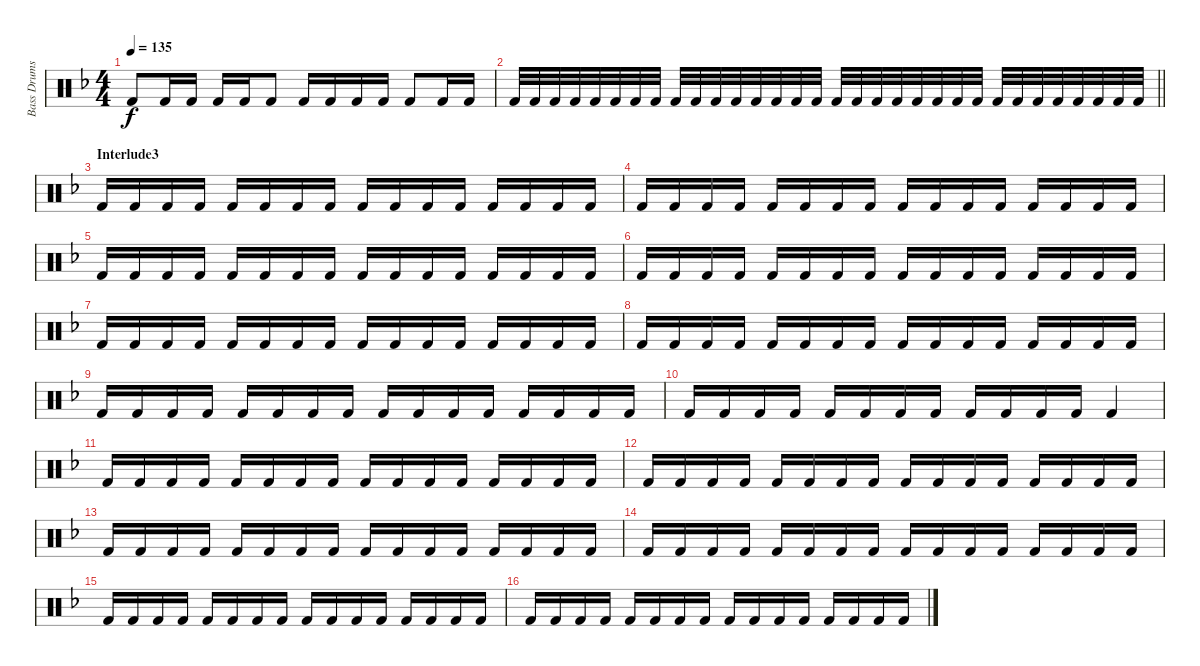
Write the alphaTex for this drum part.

\track ("Bass Drums" "Bass Drums") {instrument percussion}
\staff {score}
\articulation defaults
\ts (4 4)
\tempo 135
\clef neutral
\ks dminor "Kick (hit) 2".8{dy f} "Kick (hit) 2".16 "Kick (hit) 2".16 "Kick (hit) 2".16 "Kick (hit) 2".16 "Kick (hit) 2".8 "Kick (hit) 2".16 "Kick (hit) 2".16 "Kick (hit) 2".16 "Kick (hit) 2".16 "Kick (hit) 2".8 "Kick (hit) 2".16 "Kick (hit) 2".16
|
\barLineRight lightlight "Kick (hit) 2".32 "Kick (hit) 2".32 "Kick (hit) 2".32 "Kick (hit) 2".32 "Kick (hit) 2".32 "Kick (hit) 2".32 "Kick (hit) 2".32 "Kick (hit) 2".32 "Kick (hit) 2".32 "Kick (hit) 2".32 "Kick (hit) 2".32 "Kick (hit) 2".32 "Kick (hit) 2".32 "Kick (hit) 2".32 "Kick (hit) 2".32 "Kick (hit) 2".32 "Kick (hit) 2".32 "Kick (hit) 2".32 "Kick (hit) 2".32 "Kick (hit) 2".32 "Kick (hit) 2".32 "Kick (hit) 2".32 "Kick (hit) 2".32 "Kick (hit) 2".32 "Kick (hit) 2".32 "Kick (hit) 2".32 "Kick (hit) 2".32 "Kick (hit) 2".32 "Kick (hit) 2".32 "Kick (hit) 2".32 "Kick (hit) 2".32 "Kick (hit) 2".32
|
\section ("" "Interlude3")
"Kick (hit) 2".16 "Kick (hit) 2".16 "Kick (hit) 2".16 "Kick (hit) 2".16 "Kick (hit) 2".16 "Kick (hit) 2".16 "Kick (hit) 2".16 "Kick (hit) 2".16 "Kick (hit) 2".16 "Kick (hit) 2".16 "Kick (hit) 2".16 "Kick (hit) 2".16 "Kick (hit) 2".16 "Kick (hit) 2".16 "Kick (hit) 2".16 "Kick (hit) 2".16 |
"Kick (hit) 2".16 "Kick (hit) 2".16 "Kick (hit) 2".16 "Kick (hit) 2".16 "Kick (hit) 2".16 "Kick (hit) 2".16 "Kick (hit) 2".16 "Kick (hit) 2".16 "Kick (hit) 2".16 "Kick (hit) 2".16 "Kick (hit) 2".16 "Kick (hit) 2".16 "Kick (hit) 2".16 "Kick (hit) 2".16 "Kick (hit) 2".16 "Kick (hit) 2".16 |
"Kick (hit) 2".16 "Kick (hit) 2".16 "Kick (hit) 2".16 "Kick (hit) 2".16 "Kick (hit) 2".16 "Kick (hit) 2".16 "Kick (hit) 2".16 "Kick (hit) 2".16 "Kick (hit) 2".16 "Kick (hit) 2".16 "Kick (hit) 2".16 "Kick (hit) 2".16 "Kick (hit) 2".16 "Kick (hit) 2".16 "Kick (hit) 2".16 "Kick (hit) 2".16 |
"Kick (hit) 2".16 "Kick (hit) 2".16 "Kick (hit) 2".16 "Kick (hit) 2".16 "Kick (hit) 2".16 "Kick (hit) 2".16 "Kick (hit) 2".16 "Kick (hit) 2".16 "Kick (hit) 2".16 "Kick (hit) 2".16 "Kick (hit) 2".16 "Kick (hit) 2".16 "Kick (hit) 2".16 "Kick (hit) 2".16 "Kick (hit) 2".16 "Kick (hit) 2".16 |
"Kick (hit) 2".16 "Kick (hit) 2".16 "Kick (hit) 2".16 "Kick (hit) 2".16 "Kick (hit) 2".16 "Kick (hit) 2".16 "Kick (hit) 2".16 "Kick (hit) 2".16 "Kick (hit) 2".16 "Kick (hit) 2".16 "Kick (hit) 2".16 "Kick (hit) 2".16 "Kick (hit) 2".16 "Kick (hit) 2".16 "Kick (hit) 2".16 "Kick (hit) 2".16 |
"Kick (hit) 2".16 "Kick (hit) 2".16 "Kick (hit) 2".16 "Kick (hit) 2".16 "Kick (hit) 2".16 "Kick (hit) 2".16 "Kick (hit) 2".16 "Kick (hit) 2".16 "Kick (hit) 2".16 "Kick (hit) 2".16 "Kick (hit) 2".16 "Kick (hit) 2".16 "Kick (hit) 2".16 "Kick (hit) 2".16 "Kick (hit) 2".16 "Kick (hit) 2".16 |
"Kick (hit) 2".16 "Kick (hit) 2".16 "Kick (hit) 2".16 "Kick (hit) 2".16 "Kick (hit) 2".16 "Kick (hit) 2".16 "Kick (hit) 2".16 "Kick (hit) 2".16 "Kick (hit) 2".16 "Kick (hit) 2".16 "Kick (hit) 2".16 "Kick (hit) 2".16 "Kick (hit) 2".16 "Kick (hit) 2".16 "Kick (hit) 2".16 "Kick (hit) 2".16 |
"Kick (hit) 2".16 "Kick (hit) 2".16 "Kick (hit) 2".16 "Kick (hit) 2".16 "Kick (hit) 2".16 "Kick (hit) 2".16 "Kick (hit) 2".16 "Kick (hit) 2".16 "Kick (hit) 2".16 "Kick (hit) 2".16 "Kick (hit) 2".16 "Kick (hit) 2".16 "Kick (hit) 2".4 |
"Kick (hit) 2".16 "Kick (hit) 2".16 "Kick (hit) 2".16 "Kick (hit) 2".16 "Kick (hit) 2".16 "Kick (hit) 2".16 "Kick (hit) 2".16 "Kick (hit) 2".16 "Kick (hit) 2".16 "Kick (hit) 2".16 "Kick (hit) 2".16 "Kick (hit) 2".16 "Kick (hit) 2".16 "Kick (hit) 2".16 "Kick (hit) 2".16 "Kick (hit) 2".16 |
"Kick (hit) 2".16 "Kick (hit) 2".16 "Kick (hit) 2".16 "Kick (hit) 2".16 "Kick (hit) 2".16 "Kick (hit) 2".16 "Kick (hit) 2".16 "Kick (hit) 2".16 "Kick (hit) 2".16 "Kick (hit) 2".16 "Kick (hit) 2".16 "Kick (hit) 2".16 "Kick (hit) 2".16 "Kick (hit) 2".16 "Kick (hit) 2".16 "Kick (hit) 2".16 |
"Kick (hit) 2".16 "Kick (hit) 2".16 "Kick (hit) 2".16 "Kick (hit) 2".16 "Kick (hit) 2".16 "Kick (hit) 2".16 "Kick (hit) 2".16 "Kick (hit) 2".16 "Kick (hit) 2".16 "Kick (hit) 2".16 "Kick (hit) 2".16 "Kick (hit) 2".16 "Kick (hit) 2".16 "Kick (hit) 2".16 "Kick (hit) 2".16 "Kick (hit) 2".16 |
"Kick (hit) 2".16 "Kick (hit) 2".16 "Kick (hit) 2".16 "Kick (hit) 2".16 "Kick (hit) 2".16 "Kick (hit) 2".16 "Kick (hit) 2".16 "Kick (hit) 2".16 "Kick (hit) 2".16 "Kick (hit) 2".16 "Kick (hit) 2".16 "Kick (hit) 2".16 "Kick (hit) 2".16 "Kick (hit) 2".16 "Kick (hit) 2".16 "Kick (hit) 2".16 |
"Kick (hit) 2".16 "Kick (hit) 2".16 "Kick (hit) 2".16 "Kick (hit) 2".16 "Kick (hit) 2".16 "Kick (hit) 2".16 "Kick (hit) 2".16 "Kick (hit) 2".16 "Kick (hit) 2".16 "Kick (hit) 2".16 "Kick (hit) 2".16 "Kick (hit) 2".16 "Kick (hit) 2".16 "Kick (hit) 2".16 "Kick (hit) 2".16 "Kick (hit) 2".16 |
"Kick (hit) 2".16 "Kick (hit) 2".16 "Kick (hit) 2".16 "Kick (hit) 2".16 "Kick (hit) 2".16 "Kick (hit) 2".16 "Kick (hit) 2".16 "Kick (hit) 2".16 "Kick (hit) 2".16 "Kick (hit) 2".16 "Kick (hit) 2".16 "Kick (hit) 2".16 "Kick (hit) 2".16 "Kick (hit) 2".16 "Kick (hit) 2".16 "Kick (hit) 2".16
